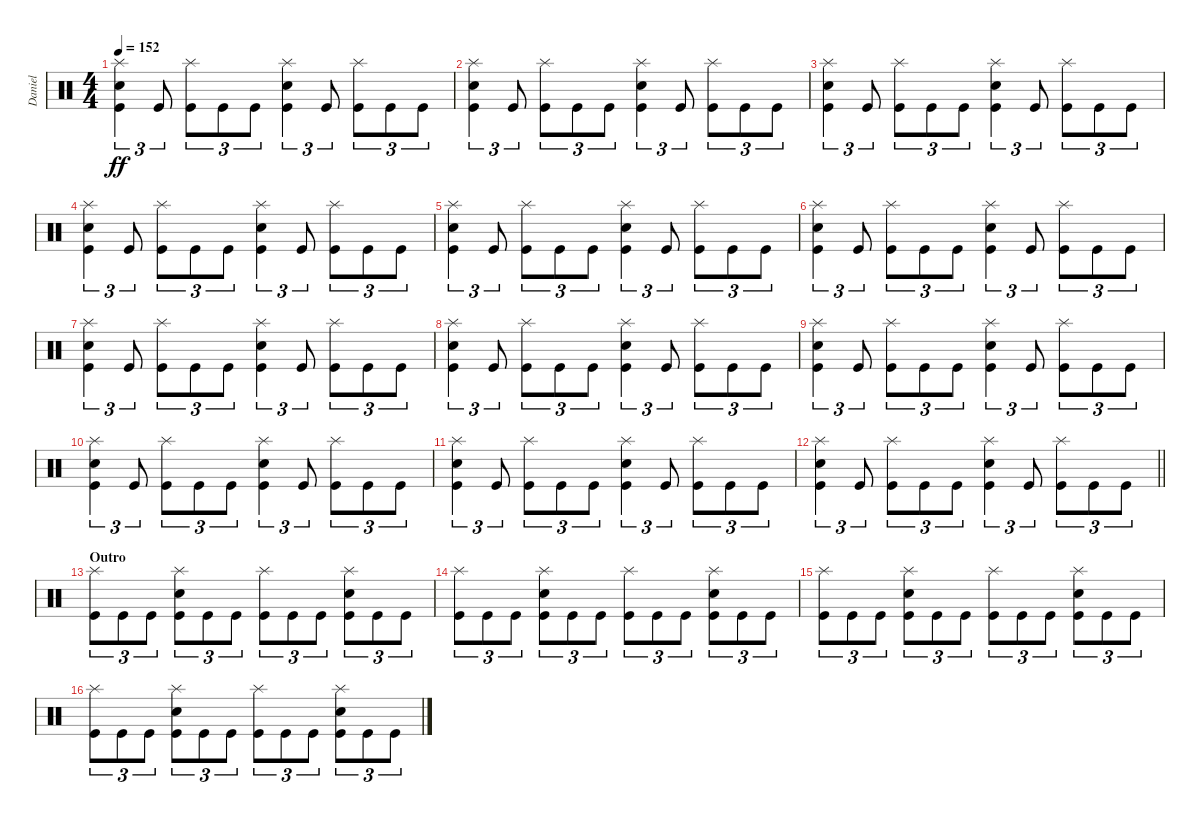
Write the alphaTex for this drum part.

\track ("Daniel" "Daniel") {instrument percussion}
\staff {score}
\articulation defaults
\ts (4 4)
\tempo 152
\clef neutral
\ks c
("Kick (hit)" "Snare (hit) 2" "Splash (hit)").4{tu (3 2) dy ff} "Kick (hit)".8{tu (3 2)} ("Kick (hit)" "Splash (hit)").8{tu (3 2)} "Kick (hit)".8{tu (3 2)} "Kick (hit)".8{tu (3 2)} ("Kick (hit)" "Snare (hit) 2" "Splash (hit)").4{tu (3 2)} "Kick (hit)".8{tu (3 2)} ("Kick (hit)" "Splash (hit)").8{tu (3 2)} "Kick (hit)".8{tu (3 2)} "Kick (hit)".8{tu (3 2)} |
("Kick (hit)" "Snare (hit) 2" "Splash (hit)").4{tu (3 2)} "Kick (hit)".8{tu (3 2)} ("Kick (hit)" "Splash (hit)").8{tu (3 2)} "Kick (hit)".8{tu (3 2)} "Kick (hit)".8{tu (3 2)} ("Kick (hit)" "Snare (hit) 2" "Splash (hit)").4{tu (3 2)} "Kick (hit)".8{tu (3 2)} ("Kick (hit)" "Splash (hit)").8{tu (3 2)} "Kick (hit)".8{tu (3 2)} "Kick (hit)".8{tu (3 2)} |
("Kick (hit)" "Snare (hit) 2" "Splash (hit)").4{tu (3 2)} "Kick (hit)".8{tu (3 2)} ("Kick (hit)" "Splash (hit)").8{tu (3 2)} "Kick (hit)".8{tu (3 2)} "Kick (hit)".8{tu (3 2)} ("Kick (hit)" "Snare (hit) 2" "Splash (hit)").4{tu (3 2)} "Kick (hit)".8{tu (3 2)} ("Kick (hit)" "Splash (hit)").8{tu (3 2)} "Kick (hit)".8{tu (3 2)} "Kick (hit)".8{tu (3 2)} |
("Kick (hit)" "Snare (hit) 2" "Splash (hit)").4{tu (3 2)} "Kick (hit)".8{tu (3 2)} ("Kick (hit)" "Splash (hit)").8{tu (3 2)} "Kick (hit)".8{tu (3 2)} "Kick (hit)".8{tu (3 2)} ("Kick (hit)" "Snare (hit) 2" "Splash (hit)").4{tu (3 2)} "Kick (hit)".8{tu (3 2)} ("Kick (hit)" "Splash (hit)").8{tu (3 2)} "Kick (hit)".8{tu (3 2)} "Kick (hit)".8{tu (3 2)} |
("Kick (hit)" "Snare (hit) 2" "Splash (hit)").4{tu (3 2)} "Kick (hit)".8{tu (3 2)} ("Kick (hit)" "Splash (hit)").8{tu (3 2)} "Kick (hit)".8{tu (3 2)} "Kick (hit)".8{tu (3 2)} ("Kick (hit)" "Snare (hit) 2" "Splash (hit)").4{tu (3 2)} "Kick (hit)".8{tu (3 2)} ("Kick (hit)" "Splash (hit)").8{tu (3 2)} "Kick (hit)".8{tu (3 2)} "Kick (hit)".8{tu (3 2)} |
("Kick (hit)" "Snare (hit) 2" "Splash (hit)").4{tu (3 2)} "Kick (hit)".8{tu (3 2)} ("Kick (hit)" "Splash (hit)").8{tu (3 2)} "Kick (hit)".8{tu (3 2)} "Kick (hit)".8{tu (3 2)} ("Kick (hit)" "Snare (hit) 2" "Splash (hit)").4{tu (3 2)} "Kick (hit)".8{tu (3 2)} ("Kick (hit)" "Splash (hit)").8{tu (3 2)} "Kick (hit)".8{tu (3 2)} "Kick (hit)".8{tu (3 2)} |
("Kick (hit)" "Snare (hit) 2" "Splash (hit)").4{tu (3 2)} "Kick (hit)".8{tu (3 2)} ("Kick (hit)" "Splash (hit)").8{tu (3 2)} "Kick (hit)".8{tu (3 2)} "Kick (hit)".8{tu (3 2)} ("Kick (hit)" "Snare (hit) 2" "Splash (hit)").4{tu (3 2)} "Kick (hit)".8{tu (3 2)} ("Kick (hit)" "Splash (hit)").8{tu (3 2)} "Kick (hit)".8{tu (3 2)} "Kick (hit)".8{tu (3 2)} |
("Kick (hit)" "Snare (hit) 2" "Splash (hit)").4{tu (3 2)} "Kick (hit)".8{tu (3 2)} ("Kick (hit)" "Splash (hit)").8{tu (3 2)} "Kick (hit)".8{tu (3 2)} "Kick (hit)".8{tu (3 2)} ("Kick (hit)" "Snare (hit) 2" "Splash (hit)").4{tu (3 2)} "Kick (hit)".8{tu (3 2)} ("Kick (hit)" "Splash (hit)").8{tu (3 2)} "Kick (hit)".8{tu (3 2)} "Kick (hit)".8{tu (3 2)} |
("Kick (hit)" "Snare (hit) 2" "Splash (hit)").4{tu (3 2)} "Kick (hit)".8{tu (3 2)} ("Kick (hit)" "Splash (hit)").8{tu (3 2)} "Kick (hit)".8{tu (3 2)} "Kick (hit)".8{tu (3 2)} ("Kick (hit)" "Snare (hit) 2" "Splash (hit)").4{tu (3 2)} "Kick (hit)".8{tu (3 2)} ("Kick (hit)" "Splash (hit)").8{tu (3 2)} "Kick (hit)".8{tu (3 2)} "Kick (hit)".8{tu (3 2)} |
("Kick (hit)" "Snare (hit) 2" "Splash (hit)").4{tu (3 2)} "Kick (hit)".8{tu (3 2)} ("Kick (hit)" "Splash (hit)").8{tu (3 2)} "Kick (hit)".8{tu (3 2)} "Kick (hit)".8{tu (3 2)} ("Kick (hit)" "Snare (hit) 2" "Splash (hit)").4{tu (3 2)} "Kick (hit)".8{tu (3 2)} ("Kick (hit)" "Splash (hit)").8{tu (3 2)} "Kick (hit)".8{tu (3 2)} "Kick (hit)".8{tu (3 2)} |
("Kick (hit)" "Snare (hit) 2" "Splash (hit)").4{tu (3 2)} "Kick (hit)".8{tu (3 2)} ("Kick (hit)" "Splash (hit)").8{tu (3 2)} "Kick (hit)".8{tu (3 2)} "Kick (hit)".8{tu (3 2)} ("Kick (hit)" "Snare (hit) 2" "Splash (hit)").4{tu (3 2)} "Kick (hit)".8{tu (3 2)} ("Kick (hit)" "Splash (hit)").8{tu (3 2)} "Kick (hit)".8{tu (3 2)} "Kick (hit)".8{tu (3 2)} |
\barLineRight lightlight
("Kick (hit)" "Snare (hit) 2" "Splash (hit)").4{tu (3 2)} "Kick (hit)".8{tu (3 2)} ("Kick (hit)" "Splash (hit)").8{tu (3 2)} "Kick (hit)".8{tu (3 2)} "Kick (hit)".8{tu (3 2)} ("Kick (hit)" "Snare (hit) 2" "Splash (hit)").4{tu (3 2)} "Kick (hit)".8{tu (3 2)} ("Kick (hit)" "Splash (hit)").8{tu (3 2)} "Kick (hit)".8{tu (3 2)} "Kick (hit)".8{tu (3 2)} |
\section ("" "Outro")
("Kick (hit)" "Splash (hit)").8{tu (3 2)} "Kick (hit)".8{tu (3 2)} "Kick (hit)".8{tu (3 2)} ("Kick (hit)" "Snare (hit) 2" "Splash (hit)").8{tu (3 2)} "Kick (hit)".8{tu (3 2)} "Kick (hit)".8{tu (3 2)} ("Kick (hit)" "Splash (hit)").8{tu (3 2)} "Kick (hit)".8{tu (3 2)} "Kick (hit)".8{tu (3 2)} ("Kick (hit)" "Snare (hit) 2" "Splash (hit)").8{tu (3 2)} "Kick (hit)".8{tu (3 2)} "Kick (hit)".8{tu (3 2)} |
("Kick (hit)" "Splash (hit)").8{tu (3 2)} "Kick (hit)".8{tu (3 2)} "Kick (hit)".8{tu (3 2)} ("Kick (hit)" "Snare (hit) 2" "Splash (hit)").8{tu (3 2)} "Kick (hit)".8{tu (3 2)} "Kick (hit)".8{tu (3 2)} ("Kick (hit)" "Splash (hit)").8{tu (3 2)} "Kick (hit)".8{tu (3 2)} "Kick (hit)".8{tu (3 2)} ("Kick (hit)" "Snare (hit) 2" "Splash (hit)").8{tu (3 2)} "Kick (hit)".8{tu (3 2)} "Kick (hit)".8{tu (3 2)} |
("Kick (hit)" "Splash (hit)").8{tu (3 2)} "Kick (hit)".8{tu (3 2)} "Kick (hit)".8{tu (3 2)} ("Kick (hit)" "Snare (hit) 2" "Splash (hit)").8{tu (3 2)} "Kick (hit)".8{tu (3 2)} "Kick (hit)".8{tu (3 2)} ("Kick (hit)" "Splash (hit)").8{tu (3 2)} "Kick (hit)".8{tu (3 2)} "Kick (hit)".8{tu (3 2)} ("Kick (hit)" "Snare (hit) 2" "Splash (hit)").8{tu (3 2)} "Kick (hit)".8{tu (3 2)} "Kick (hit)".8{tu (3 2)} |
("Kick (hit)" "Splash (hit)").8{tu (3 2)} "Kick (hit)".8{tu (3 2)} "Kick (hit)".8{tu (3 2)} ("Kick (hit)" "Snare (hit) 2" "Splash (hit)").8{tu (3 2)} "Kick (hit)".8{tu (3 2)} "Kick (hit)".8{tu (3 2)} ("Kick (hit)" "Splash (hit)").8{tu (3 2)} "Kick (hit)".8{tu (3 2)} "Kick (hit)".8{tu (3 2)} ("Kick (hit)" "Snare (hit) 2" "Splash (hit)").8{tu (3 2)} "Kick (hit)".8{tu (3 2)} "Kick (hit)".8{tu (3 2)}
